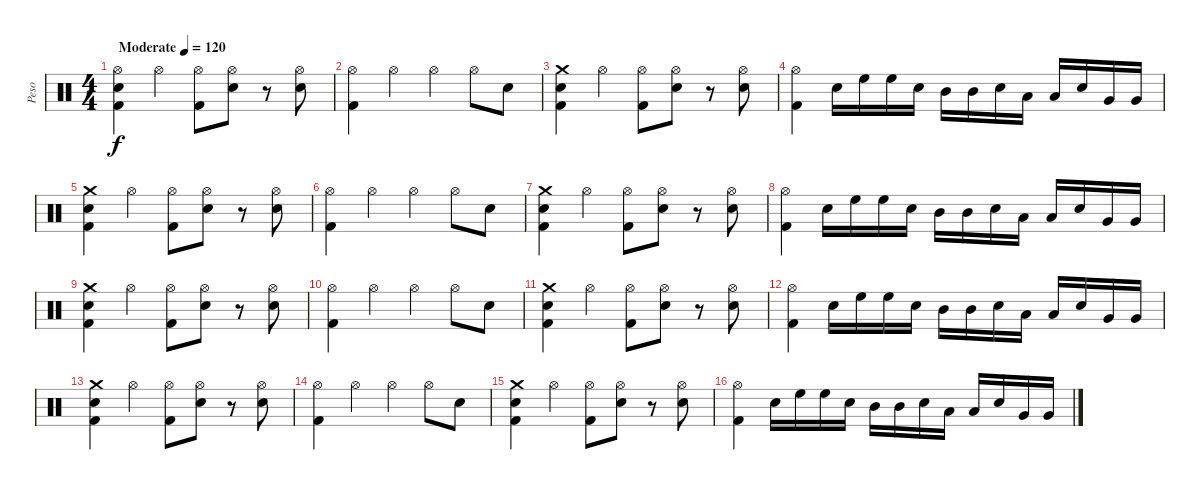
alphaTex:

\track ("Peso" "Peso") {instrument percussion}
\staff {score}
\articulation defaults
\ts (4 4)
\tempo (120 "Moderate")
\clef neutral
\ks c
("Hi-Hat (open)" "Electric Snare (hit)" "Kick (hit) 2").4{dy f} "Hi-Hat (open)".4 ("Hi-Hat (open)" "Kick (hit) 2").8 ("Hi-Hat (open)" "Electric Snare (hit)").8 r.8 ("Hi-Hat (open)" "Electric Snare (hit)").8 |
("Hi-Hat (open)" "Kick (hit) 2").4 "Hi-Hat (open)".4 "Hi-Hat (open)".4 "Hi-Hat (open)".8 "Electric Snare (hit)".8 |
("Crash medium (hit)" "Electric Snare (hit)" "Kick (hit) 2").4 "Hi-Hat (open)".4 ("Hi-Hat (open)" "Kick (hit) 2").8 ("Hi-Hat (open)" "Electric Snare (hit)").8 r.8 ("Hi-Hat (open)" "Electric Snare (hit)").8 |
("Hi-Hat (open)" "Kick (hit) 2").4 "Electric Snare (hit)".16 "High Floor Tom (hit)".16 "High Floor Tom (hit)".16 "Electric Snare (hit)".16 "Mid Tom (hit)".16 "Mid Tom (hit)".16 "Electric Snare (hit)".16 "Low Tom (hit)".16 "Low Tom (hit)".16 "Electric Snare (hit)".16 "Very Low Tom (hit)".16 "Very Low Tom (hit)".16 |
("Crash medium (hit)" "Electric Snare (hit)" "Kick (hit) 2").4 "Hi-Hat (open)".4 ("Hi-Hat (open)" "Kick (hit) 2").8 ("Hi-Hat (open)" "Electric Snare (hit)").8 r.8 ("Hi-Hat (open)" "Electric Snare (hit)").8 |
("Hi-Hat (open)" "Kick (hit) 2").4 "Hi-Hat (open)".4 "Hi-Hat (open)".4 "Hi-Hat (open)".8 "Electric Snare (hit)".8 |
("Crash medium (hit)" "Electric Snare (hit)" "Kick (hit) 2").4 "Hi-Hat (open)".4 ("Hi-Hat (open)" "Kick (hit) 2").8 ("Hi-Hat (open)" "Electric Snare (hit)").8 r.8 ("Hi-Hat (open)" "Electric Snare (hit)").8 |
("Hi-Hat (open)" "Kick (hit) 2").4 "Electric Snare (hit)".16 "High Floor Tom (hit)".16 "High Floor Tom (hit)".16 "Electric Snare (hit)".16 "Mid Tom (hit)".16 "Mid Tom (hit)".16 "Electric Snare (hit)".16 "Low Tom (hit)".16 "Low Tom (hit)".16 "Electric Snare (hit)".16 "Very Low Tom (hit)".16 "Very Low Tom (hit)".16 |
("Crash medium (hit)" "Electric Snare (hit)" "Kick (hit) 2").4 "Hi-Hat (open)".4 ("Hi-Hat (open)" "Kick (hit) 2").8 ("Hi-Hat (open)" "Electric Snare (hit)").8 r.8 ("Hi-Hat (open)" "Electric Snare (hit)").8 |
("Hi-Hat (open)" "Kick (hit) 2").4 "Hi-Hat (open)".4 "Hi-Hat (open)".4 "Hi-Hat (open)".8 "Electric Snare (hit)".8 |
("Crash medium (hit)" "Electric Snare (hit)" "Kick (hit) 2").4 "Hi-Hat (open)".4 ("Hi-Hat (open)" "Kick (hit) 2").8 ("Hi-Hat (open)" "Electric Snare (hit)").8 r.8 ("Hi-Hat (open)" "Electric Snare (hit)").8 |
("Hi-Hat (open)" "Kick (hit) 2").4 "Electric Snare (hit)".16 "High Floor Tom (hit)".16 "High Floor Tom (hit)".16 "Electric Snare (hit)".16 "Mid Tom (hit)".16 "Mid Tom (hit)".16 "Electric Snare (hit)".16 "Low Tom (hit)".16 "Low Tom (hit)".16 "Electric Snare (hit)".16 "Very Low Tom (hit)".16 "Very Low Tom (hit)".16 |
("Crash medium (hit)" "Electric Snare (hit)" "Kick (hit) 2").4 "Hi-Hat (open)".4 ("Hi-Hat (open)" "Kick (hit) 2").8 ("Hi-Hat (open)" "Electric Snare (hit)").8 r.8 ("Hi-Hat (open)" "Electric Snare (hit)").8 |
("Hi-Hat (open)" "Kick (hit) 2").4 "Hi-Hat (open)".4 "Hi-Hat (open)".4 "Hi-Hat (open)".8 "Electric Snare (hit)".8 |
("Crash medium (hit)" "Electric Snare (hit)" "Kick (hit) 2").4 "Hi-Hat (open)".4 ("Hi-Hat (open)" "Kick (hit) 2").8 ("Hi-Hat (open)" "Electric Snare (hit)").8 r.8 ("Hi-Hat (open)" "Electric Snare (hit)").8 |
("Hi-Hat (open)" "Kick (hit) 2").4 "Electric Snare (hit)".16 "High Floor Tom (hit)".16 "High Floor Tom (hit)".16 "Electric Snare (hit)".16 "Mid Tom (hit)".16 "Mid Tom (hit)".16 "Electric Snare (hit)".16 "Low Tom (hit)".16 "Low Tom (hit)".16 "Electric Snare (hit)".16 "Very Low Tom (hit)".16 "Very Low Tom (hit)".16
